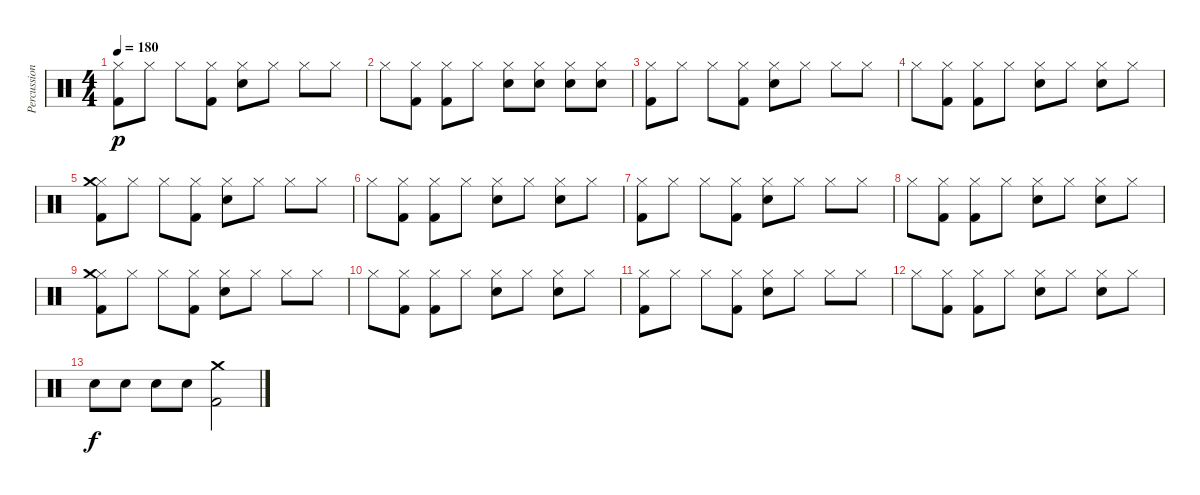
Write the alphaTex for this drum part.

\track ("Percussions" "Percussion") {instrument percussion}
\staff {score}
\articulation defaults
\ts (4 4)
\tempo 180
\clef neutral
\ks c
("Hi-Hat (closed)" "Kick (hit) 2").8{dy p} "Hi-Hat (closed)".8 "Hi-Hat (closed)".8 ("Hi-Hat (closed)" "Kick (hit) 2").8 ("Hi-Hat (closed)" "Electric Snare (hit)").8 "Hi-Hat (closed)".8 "Hi-Hat (closed)".8 "Hi-Hat (closed)".8 |
"Hi-Hat (closed)".8 ("Hi-Hat (closed)" "Kick (hit) 2").8 ("Hi-Hat (closed)" "Kick (hit) 2").8 "Hi-Hat (closed)".8 ("Hi-Hat (closed)" "Electric Snare (hit)").8 ("Hi-Hat (closed)" "Electric Snare (hit)").8 ("Hi-Hat (closed)" "Electric Snare (hit)").8 ("Hi-Hat (closed)" "Electric Snare (hit)").8 |
("Hi-Hat (closed)" "Kick (hit) 2").8 "Hi-Hat (closed)".8 "Hi-Hat (closed)".8 ("Hi-Hat (closed)" "Kick (hit) 2").8 ("Hi-Hat (closed)" "Electric Snare (hit)").8 "Hi-Hat (closed)".8 "Hi-Hat (closed)".8 "Hi-Hat (closed)".8 |
"Hi-Hat (closed)".8 ("Hi-Hat (closed)" "Kick (hit) 2").8 ("Hi-Hat (closed)" "Kick (hit) 2").8 "Hi-Hat (closed)".8 ("Hi-Hat (closed)" "Electric Snare (hit)").8 "Hi-Hat (closed)".8 ("Hi-Hat (closed)" "Electric Snare (hit)").8 "Hi-Hat (closed)".8 |
("Hi-Hat (closed)" "Kick (hit) 2" "Crash medium (hit)").8 "Hi-Hat (closed)".8 "Hi-Hat (closed)".8 ("Hi-Hat (closed)" "Kick (hit) 2").8 ("Hi-Hat (closed)" "Electric Snare (hit)").8 "Hi-Hat (closed)".8 "Hi-Hat (closed)".8 "Hi-Hat (closed)".8 |
"Hi-Hat (closed)".8 ("Hi-Hat (closed)" "Kick (hit) 2").8 ("Hi-Hat (closed)" "Kick (hit) 2").8 "Hi-Hat (closed)".8 ("Hi-Hat (closed)" "Electric Snare (hit)").8 "Hi-Hat (closed)".8 ("Hi-Hat (closed)" "Electric Snare (hit)").8 "Hi-Hat (closed)".8 |
("Hi-Hat (closed)" "Kick (hit) 2").8 "Hi-Hat (closed)".8 "Hi-Hat (closed)".8 ("Hi-Hat (closed)" "Kick (hit) 2").8 ("Hi-Hat (closed)" "Electric Snare (hit)").8 "Hi-Hat (closed)".8 "Hi-Hat (closed)".8 "Hi-Hat (closed)".8 |
"Hi-Hat (closed)".8 ("Hi-Hat (closed)" "Kick (hit) 2").8 ("Hi-Hat (closed)" "Kick (hit) 2").8 "Hi-Hat (closed)".8 ("Hi-Hat (closed)" "Electric Snare (hit)").8 "Hi-Hat (closed)".8 ("Hi-Hat (closed)" "Electric Snare (hit)").8 "Hi-Hat (closed)".8 |
("Hi-Hat (closed)" "Kick (hit) 2" "Crash medium (hit)").8 "Hi-Hat (closed)".8 "Hi-Hat (closed)".8 ("Hi-Hat (closed)" "Kick (hit) 2").8 ("Hi-Hat (closed)" "Electric Snare (hit)").8 "Hi-Hat (closed)".8 "Hi-Hat (closed)".8 "Hi-Hat (closed)".8 |
"Hi-Hat (closed)".8 ("Hi-Hat (closed)" "Kick (hit) 2").8 ("Hi-Hat (closed)" "Kick (hit) 2").8 "Hi-Hat (closed)".8 ("Hi-Hat (closed)" "Electric Snare (hit)").8 "Hi-Hat (closed)".8 ("Hi-Hat (closed)" "Electric Snare (hit)").8 "Hi-Hat (closed)".8 |
("Hi-Hat (closed)" "Kick (hit) 2").8 "Hi-Hat (closed)".8 "Hi-Hat (closed)".8 ("Hi-Hat (closed)" "Kick (hit) 2").8 ("Hi-Hat (closed)" "Electric Snare (hit)").8 "Hi-Hat (closed)".8 "Hi-Hat (closed)".8 "Hi-Hat (closed)".8 |
"Hi-Hat (closed)".8 ("Hi-Hat (closed)" "Kick (hit) 2").8 ("Hi-Hat (closed)" "Kick (hit) 2").8 "Hi-Hat (closed)".8 ("Hi-Hat (closed)" "Electric Snare (hit)").8 "Hi-Hat (closed)".8 ("Hi-Hat (closed)" "Electric Snare (hit)").8 "Hi-Hat (closed)".8 |
"Electric Snare (hit)".8{dy f} "Electric Snare (hit)".8 "Electric Snare (hit)".8 "Electric Snare (hit)".8 ("Crash medium (hit)" "Kick (hit) 2").2
